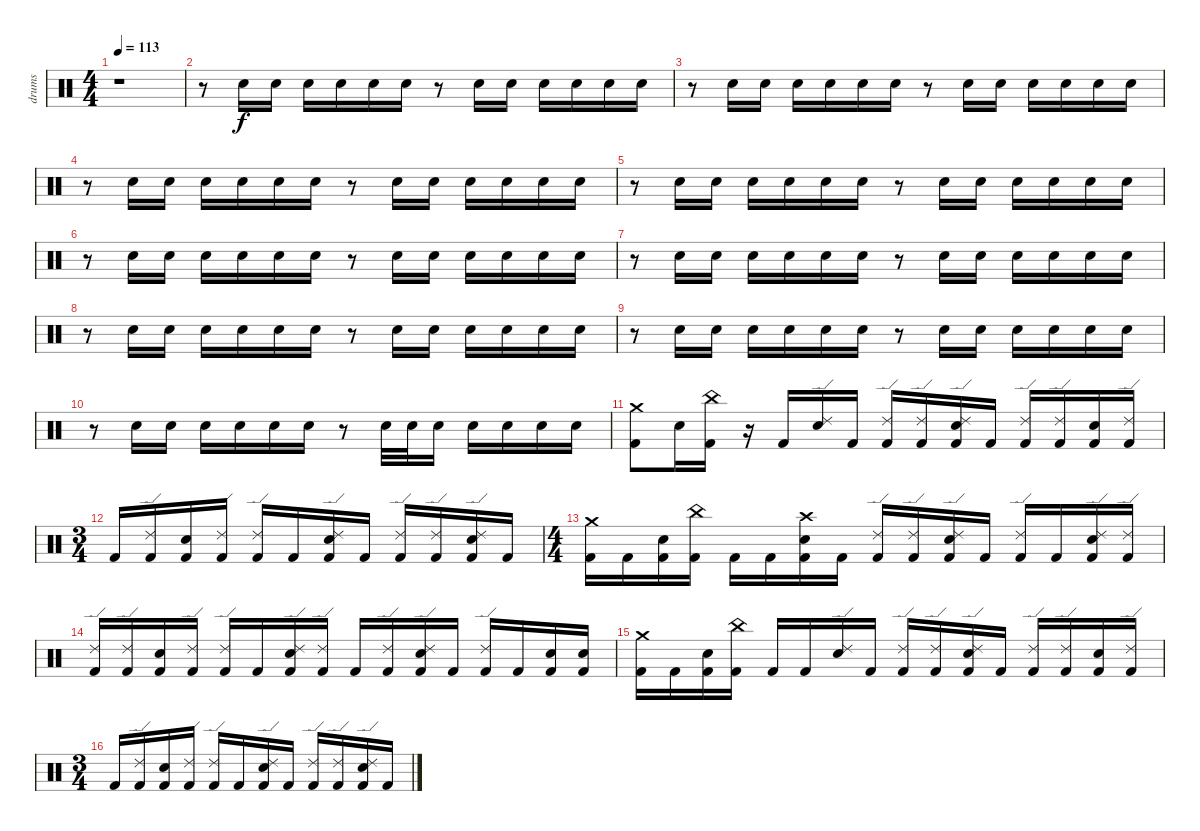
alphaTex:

\track ("drums" "drums") {instrument percussion}
\staff {score}
\articulation defaults
\ts (4 4)
\tempo 113
\clef neutral
\ks c
r.1{dy f} |
r.8 "Electric Snare (hit)".16{volume 5} "Electric Snare (hit)".16{volume 5} "Electric Snare (hit)".16 "Electric Snare (hit)".16{volume 5} "Electric Snare (hit)".16{volume 5} "Electric Snare (hit)".16 r.8 "Electric Snare (hit)".16{volume 6} "Electric Snare (hit)".16{volume 6} "Electric Snare (hit)".16 "Electric Snare (hit)".16{volume 6} "Electric Snare (hit)".16 "Electric Snare (hit)".16{volume 6} |
r.8 "Electric Snare (hit)".16{volume 6} "Electric Snare (hit)".16 "Electric Snare (hit)".16{volume 6} "Electric Snare (hit)".16 "Electric Snare (hit)".16{volume 6} "Electric Snare (hit)".16{volume 7} r.8 "Electric Snare (hit)".16{volume 7} "Electric Snare (hit)".16{volume 7} "Electric Snare (hit)".16{volume 7} "Electric Snare (hit)".16 "Electric Snare (hit)".16{volume 7} "Electric Snare (hit)".16 |
r.8 "Electric Snare (hit)".16{volume 7} "Electric Snare (hit)".16{volume 8} "Electric Snare (hit)".16 "Electric Snare (hit)".16{volume 8} "Electric Snare (hit)".16{volume 8} "Electric Snare (hit)".16 r.8 "Electric Snare (hit)".16{volume 8} "Electric Snare (hit)".16{volume 8} "Electric Snare (hit)".16 "Electric Snare (hit)".16{volume 8} "Electric Snare (hit)".16 "Electric Snare (hit)".16{volume 8} |
r.8 "Electric Snare (hit)".16{volume 9} "Electric Snare (hit)".16 "Electric Snare (hit)".16{volume 9} "Electric Snare (hit)".16 "Electric Snare (hit)".16{volume 9} "Electric Snare (hit)".16{volume 9} r.8 "Electric Snare (hit)".16{volume 9} "Electric Snare (hit)".16{volume 9} "Electric Snare (hit)".16{volume 9} "Electric Snare (hit)".16 "Electric Snare (hit)".16{volume 10} "Electric Snare (hit)".16 |
r.8 "Electric Snare (hit)".16{volume 10} "Electric Snare (hit)".16{volume 10} "Electric Snare (hit)".16 "Electric Snare (hit)".16{volume 10} "Electric Snare (hit)".16{volume 10} "Electric Snare (hit)".16 r.8 "Electric Snare (hit)".16{volume 10} "Electric Snare (hit)".16{volume 10} "Electric Snare (hit)".16 "Electric Snare (hit)".16{volume 11} "Electric Snare (hit)".16 "Electric Snare (hit)".16{volume 11} |
r.8 "Electric Snare (hit)".16{volume 11} "Electric Snare (hit)".16 "Electric Snare (hit)".16{volume 11} "Electric Snare (hit)".16{volume 11} "Electric Snare (hit)".16 "Electric Snare (hit)".16{volume 11} r.8 "Electric Snare (hit)".16{volume 12} "Electric Snare (hit)".16{volume 12} "Electric Snare (hit)".16{volume 12} "Electric Snare (hit)".16 "Electric Snare (hit)".16{volume 12} "Electric Snare (hit)".16 |
r.8 "Electric Snare (hit)".16{volume 12} "Electric Snare (hit)".16{volume 12} "Electric Snare (hit)".16 "Electric Snare (hit)".16{volume 12} "Electric Snare (hit)".16{volume 12} "Electric Snare (hit)".16 r.8 "Electric Snare (hit)".16{volume 13} "Electric Snare (hit)".16{volume 13} "Electric Snare (hit)".16 "Electric Snare (hit)".16{volume 13} "Electric Snare (hit)".16 "Electric Snare (hit)".16{volume 13} |
r.8 "Electric Snare (hit)".16{volume 13} "Electric Snare (hit)".16 "Electric Snare (hit)".16{volume 14} "Electric Snare (hit)".16{volume 14} "Electric Snare (hit)".16 "Electric Snare (hit)".16{volume 14} r.8 "Electric Snare (hit)".16{volume 14} "Electric Snare (hit)".16{volume 14} "Electric Snare (hit)".16{volume 14} "Electric Snare (hit)".16 "Electric Snare (hit)".16{volume 14} "Electric Snare (hit)".16 |
r.8 "Electric Snare (hit)".16{volume 14} "Electric Snare (hit)".16{volume 15} "Electric Snare (hit)".16 "Electric Snare (hit)".16{volume 15} "Electric Snare (hit)".16{volume 15} "Electric Snare (hit)".16 r.8 "Electric Snare (hit)".32{volume 15} "Electric Snare (hit)".32 "Electric Snare (hit)".16{volume 15} "Electric Snare (hit)".16 "Electric Snare (hit)".16{volume 15} "Electric Snare (hit)".16 "Electric Snare (hit)".16{volume 16} |
("Crash medium (hit)" "Kick (hit) 2").8{volume 16} "Electric Snare (hit)".16 ("China (hit)" "Kick (hit) 2").16 r.16 "Kick (hit) 2".16 ("Ride (edge) 2" "Electric Snare (hit)").16 "Kick (hit) 2".16 ("Ride (edge) 2" "Kick (hit) 2").16 ("Ride (edge) 2" "Kick (hit) 2").16 ("Ride (edge) 2" "Kick (hit) 2" "Electric Snare (hit)").16 "Kick (hit) 2".16 ("Ride (edge) 2" "Kick (hit) 2").16 ("Ride (edge) 2" "Kick (hit) 2").16 ("Electric Snare (hit)" "Kick (hit) 2").16 ("Ride (edge) 2" "Kick (hit) 2").16 |
\ts (3 4)
"Kick (hit) 2".16 ("Ride (edge) 2" "Kick (hit) 2").16 ("Electric Snare (hit)" "Kick (hit) 2").16 ("Ride (edge) 2" "Kick (hit) 2").16 ("Ride (edge) 2" "Kick (hit) 2").16 "Kick (hit) 2".16 ("Ride (edge) 2" "Electric Snare (hit)" "Kick (hit) 2").16 "Kick (hit) 2".16 ("Ride (edge) 2" "Kick (hit) 2").16 ("Ride (edge) 2" "Kick (hit) 2").16 ("Ride (edge) 2" "Electric Snare (hit)" "Kick (hit) 2").16 "Kick (hit) 2".16 |
\ts (4 4)
("Crash medium (hit)" "Kick (hit) 2").16 "Kick (hit) 2".16 ("Electric Snare (hit)" "Kick (hit) 2").16 ("China (hit)" "Kick (hit) 2").16 "Kick (hit) 2".16 "Kick (hit) 2".16 ("Crash high (hit)" "Electric Snare (hit)" "Kick (hit) 2").16 "Kick (hit) 2".16 ("Ride (edge) 2" "Kick (hit) 2").16 ("Ride (edge) 2" "Kick (hit) 2").16 ("Ride (edge) 2" "Electric Snare (hit)" "Kick (hit) 2").16 "Kick (hit) 2".16 ("Ride (edge) 2" "Kick (hit) 2").16 "Kick (hit) 2".16 ("Ride (edge) 2" "Electric Snare (hit)" "Kick (hit) 2").16 ("Ride (edge) 2" "Kick (hit) 2").16 |
("Ride (edge) 2" "Kick (hit) 2").16 ("Ride (edge) 2" "Kick (hit) 2").16 ("Electric Snare (hit)" "Kick (hit) 2").16 ("Ride (edge) 2" "Kick (hit) 2").16 ("Ride (edge) 2" "Kick (hit) 2").16 "Kick (hit) 2".16 ("Ride (edge) 2" "Electric Snare (hit)" "Kick (hit) 2").16 ("Ride (edge) 2" "Kick (hit) 2").16 "Kick (hit) 2".16 ("Ride (edge) 2" "Kick (hit) 2").16 ("Ride (edge) 2" "Electric Snare (hit)" "Kick (hit) 2").16 "Kick (hit) 2".16 ("Ride (edge) 2" "Kick (hit) 2").16 "Kick (hit) 2".16 ("Electric Snare (hit)" "Kick (hit) 2").16 ("Electric Snare (hit)" "Kick (hit) 2").16 |
("Crash medium (hit)" "Kick (hit) 2").16 "Kick (hit) 2".16 ("Kick (hit) 2" "Electric Snare (hit)").16 ("China (hit)" "Kick (hit) 2").16 "Kick (hit) 2".16 "Kick (hit) 2".16 ("Ride (edge) 2" "Electric Snare (hit)").16 "Kick (hit) 2".16 ("Ride (edge) 2" "Kick (hit) 2").16 ("Ride (edge) 2" "Kick (hit) 2").16 ("Ride (edge) 2" "Kick (hit) 2" "Electric Snare (hit)").16 "Kick (hit) 2".16 ("Ride (edge) 2" "Kick (hit) 2").16 ("Ride (edge) 2" "Kick (hit) 2").16 ("Electric Snare (hit)" "Kick (hit) 2").16 ("Ride (edge) 2" "Kick (hit) 2").16 |
\ts (3 4)
"Kick (hit) 2".16 ("Ride (edge) 2" "Kick (hit) 2").16 ("Electric Snare (hit)" "Kick (hit) 2").16 ("Ride (edge) 2" "Kick (hit) 2").16 ("Ride (edge) 2" "Kick (hit) 2").16 "Kick (hit) 2".16 ("Ride (edge) 2" "Electric Snare (hit)" "Kick (hit) 2").16 "Kick (hit) 2".16 ("Ride (edge) 2" "Kick (hit) 2").16 ("Ride (edge) 2" "Kick (hit) 2").16 ("Ride (edge) 2" "Electric Snare (hit)" "Kick (hit) 2").16 "Kick (hit) 2".16
